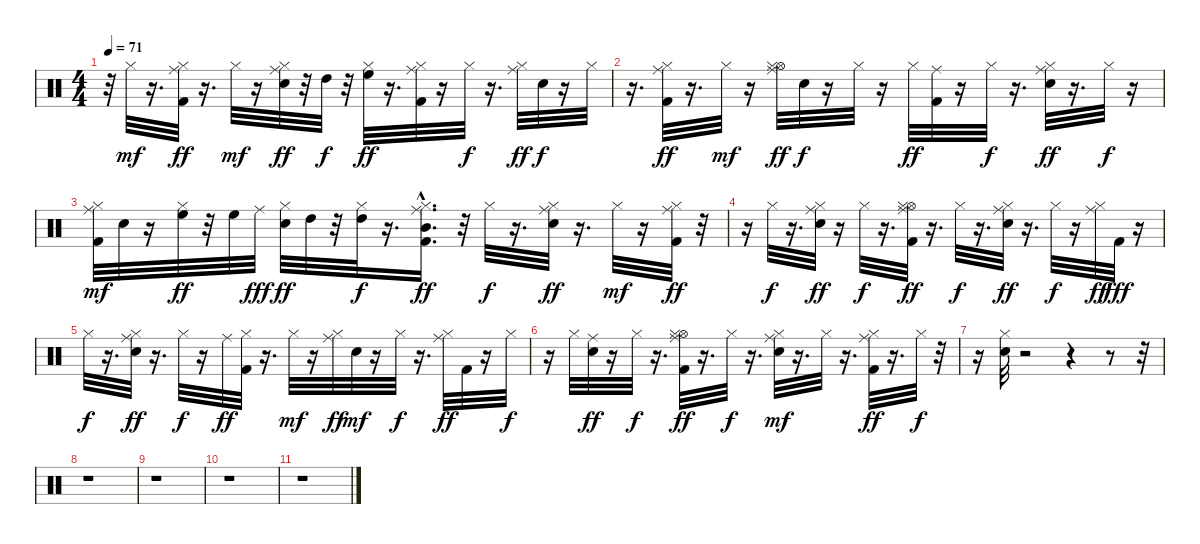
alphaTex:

\track "" {instrument percussion}
\staff {score}
\articulation defaults
\ts (4 4)
\tempo 71
\clef neutral
\ks c
r.32{dy ff} "Hi-Hat (closed)".32{dy mf} r.16{d} ("Ride (middle)" "Hi-Hat (closed)" "Kick (hit) 2").32{dy ff} r.16{d} "Hi-Hat (closed)".32{dy mf} r.16 ("Ride (middle)" "Snare (hit) 2" "Hi-Hat (closed)").32{dy ff} r.32 "High Tom (hit)".32{dy f} r.32 ("High Floor Tom (hit)" "Hi-Hat (closed)").32{dy ff} r.16{d} ("Kick (hit) 2" "Ride (middle)" "Hi-Hat (closed)").32 r.16 "Hi-Hat (closed)".32{dy f} r.16{d} ("Hi-Hat (closed)" "Ride (middle)").32{dy ff} "Snare (hit) 2".32{dy f} r.16 "Hi-Hat (closed)".32 |
r.16{d} ("Hi-Hat (closed)" "Kick (hit) 2" "Ride (middle)").32{dy ff} r.16{d} "Hi-Hat (closed)".32{dy mf} r.16 ("Hi-Hat (open)" "Hi-Hat (closed)" "Ride (middle)").32{dy ff} "Snare (hit) 2".32{dy f} r.16 "Hi-Hat (closed)".32 r.16 "Hi-Hat (closed)".32{dy ff} ("Ride (middle)" "Kick (hit) 2").32 r.16 "Hi-Hat (closed)".32{dy f} r.16{d} ("Ride (middle)" "Hi-Hat (closed)" "Snare (hit) 2").32{dy ff} r.16{d} "Hi-Hat (closed)".32{dy f} r.16 |
("Ride (middle)" "Hi-Hat (closed)" "Kick (hit) 2").32{dy mf} "Snare (hit) 2".32 r.16 ("Hi-Hat (closed)" "High Floor Tom (hit)").32{dy ff} r.32 "High Floor Tom (hit)".32 "Ride (middle)".32{dy fff} ("Hi-Hat (closed)" "Snare (hit) 2").32{dy ff} "High Tom (hit)".32 r.32 ("High Tom (hit)" "Hi-Hat (closed)").32{dy f} r.16{d} ("Ride (middle)" "Mid Tom (hit)"{hac} "Hi-Hat (closed)" "Kick (hit) 2").16{d dy ff} r.32 "Hi-Hat (closed)".32{dy f} r.16{d} ("Ride (middle)" "Hi-Hat (closed)" "Snare (hit) 2").32{dy ff} r.16{d} "Hi-Hat (closed)".32{dy mf} r.16 ("Ride (middle)" "Hi-Hat (closed)" "Kick (hit) 2").32{dy ff} r.32 |
r.16 "Hi-Hat (closed)".32{dy f} r.16{d} ("Ride (middle)" "Hi-Hat (closed)" "Snare (hit) 2").32{dy ff} r.16 "Hi-Hat (closed)".32{dy f} r.16{d} ("Hi-Hat (open)" "Ride (middle)" "Hi-Hat (closed)" "Kick (hit) 2").32{dy ff} r.16{d} "Hi-Hat (closed)".32{dy f} r.16{d} ("Hi-Hat (closed)" "Ride (middle)" "Snare (hit) 2").32{dy ff} r.16{d} "Hi-Hat (closed)".32{dy f} r.16 ("Hi-Hat (closed)" "Ride (middle)").32{dy ff} "Kick (hit) 2".32{dy fff} r.16 |
"Hi-Hat (closed)".32{dy f} r.16{d} ("Ride (middle)" "Hi-Hat (closed)" "Snare (hit) 2").32{dy ff} r.16{d} "Hi-Hat (closed)".32{dy f} r.16 "Ride (middle)".32{dy ff} ("Hi-Hat (closed)" "Kick (hit) 2").32 r.16{d} "Hi-Hat (closed)".32{dy mf} r.16 ("Ride (middle)" "Hi-Hat (closed)").32{dy ff} "Snare (hit) 2".32{dy mf} r.16 "Hi-Hat (closed)".32{dy f} r.16{d} ("Hi-Hat (closed)" "Ride (middle)").32{dy ff} "Kick (hit) 2".32 r.16 "Hi-Hat (closed)".32{dy f} |
r.16 "Hi-Hat (closed)".32 ("Ride (middle)" "Snare (hit) 2").32{dy ff} r.16 "Hi-Hat (closed)".32{dy f} r.16{d} ("Hi-Hat (open)" "Hi-Hat (closed)" "Ride (middle)" "Kick (hit) 2").32{dy ff} r.16{d} "Hi-Hat (closed)".32{dy f} r.16{d} ("Ride (middle)" "Hi-Hat (closed)" "Snare (hit) 2").32{dy mf} r.16{d} "Hi-Hat (closed)".32 r.16{d} ("Ride (middle)" "Hi-Hat (closed)" "Kick (hit) 2").32{dy ff} r.16{d} "Hi-Hat (closed)".32{dy f} r.32 |
r.16 ("Hi-Hat (closed)" "Snare (hit) 2").32 r.2 r.4 r.8 r.32 |
r.1 |
r.1 |
r.1 |
r.1
